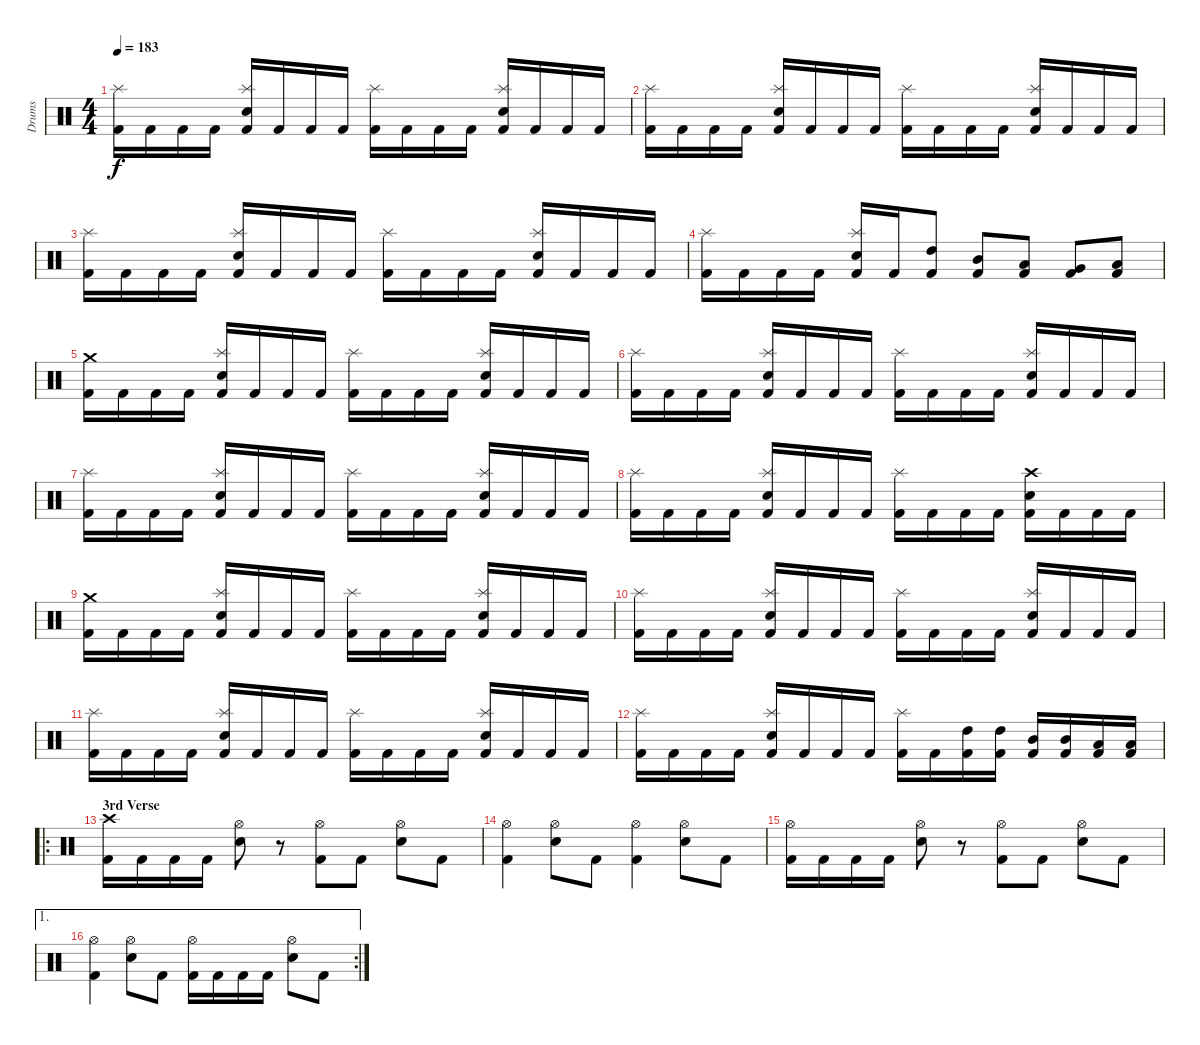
\track ("Drums" "Drums") {instrument percussion}
\staff {score}
\articulation defaults
\ts (4 4)
\tempo 183
\clef neutral
\ks c
("Kick (hit) 2" "Splash (hit)").16{dy f} "Kick (hit) 2".16 "Kick (hit) 2".16 "Kick (hit) 2".16 ("Kick (hit) 2" "Electric Snare (hit)" "Splash (hit)").16 "Kick (hit) 2".16 "Kick (hit) 2".16 "Kick (hit) 2".16 ("Kick (hit) 2" "Splash (hit)").16 "Kick (hit) 2".16 "Kick (hit) 2".16 "Kick (hit) 2".16 ("Kick (hit) 2" "Electric Snare (hit)" "Splash (hit)").16 "Kick (hit) 2".16 "Kick (hit) 2".16 "Kick (hit) 2".16 |
("Kick (hit) 2" "Splash (hit)").16 "Kick (hit) 2".16 "Kick (hit) 2".16 "Kick (hit) 2".16 ("Kick (hit) 2" "Electric Snare (hit)" "Splash (hit)").16 "Kick (hit) 2".16 "Kick (hit) 2".16 "Kick (hit) 2".16 ("Kick (hit) 2" "Splash (hit)").16 "Kick (hit) 2".16 "Kick (hit) 2".16 "Kick (hit) 2".16 ("Kick (hit) 2" "Electric Snare (hit)" "Splash (hit)").16 "Kick (hit) 2".16 "Kick (hit) 2".16 "Kick (hit) 2".16 |
("Kick (hit) 2" "Splash (hit)").16 "Kick (hit) 2".16 "Kick (hit) 2".16 "Kick (hit) 2".16 ("Kick (hit) 2" "Electric Snare (hit)" "Splash (hit)").16 "Kick (hit) 2".16 "Kick (hit) 2".16 "Kick (hit) 2".16 ("Kick (hit) 2" "Splash (hit)").16 "Kick (hit) 2".16 "Kick (hit) 2".16 "Kick (hit) 2".16 ("Kick (hit) 2" "Electric Snare (hit)" "Splash (hit)").16 "Kick (hit) 2".16 "Kick (hit) 2".16 "Kick (hit) 2".16 |
("Kick (hit) 2" "Splash (hit)").16 "Kick (hit) 2".16 "Kick (hit) 2".16 "Kick (hit) 2".16 ("Kick (hit) 2" "Electric Snare (hit)" "Splash (hit)").16 "Kick (hit) 2".16 ("Kick (hit) 2" "High Tom (hit)").8 ("Kick (hit) 2" "Mid Tom (hit)").8 ("Kick (hit) 2" "Low Tom (hit)").8 ("Kick (hit) 2" "Very Low Tom (hit)").8 ("Kick (hit) 2" "Low Floor Tom (hit)").8 |
("Kick (hit) 2" "Crash medium (hit)").16 "Kick (hit) 2".16 "Kick (hit) 2".16 "Kick (hit) 2".16 ("Kick (hit) 2" "Electric Snare (hit)" "Splash (hit)").16 "Kick (hit) 2".16 "Kick (hit) 2".16 "Kick (hit) 2".16 ("Kick (hit) 2" "Splash (hit)").16 "Kick (hit) 2".16 "Kick (hit) 2".16 "Kick (hit) 2".16 ("Kick (hit) 2" "Electric Snare (hit)" "Splash (hit)").16 "Kick (hit) 2".16 "Kick (hit) 2".16 "Kick (hit) 2".16 |
("Kick (hit) 2" "Splash (hit)").16 "Kick (hit) 2".16 "Kick (hit) 2".16 "Kick (hit) 2".16 ("Kick (hit) 2" "Electric Snare (hit)" "Splash (hit)").16 "Kick (hit) 2".16 "Kick (hit) 2".16 "Kick (hit) 2".16 ("Kick (hit) 2" "Splash (hit)").16 "Kick (hit) 2".16 "Kick (hit) 2".16 "Kick (hit) 2".16 ("Kick (hit) 2" "Electric Snare (hit)" "Splash (hit)").16 "Kick (hit) 2".16 "Kick (hit) 2".16 "Kick (hit) 2".16 |
("Kick (hit) 2" "Splash (hit)").16 "Kick (hit) 2".16 "Kick (hit) 2".16 "Kick (hit) 2".16 ("Kick (hit) 2" "Electric Snare (hit)" "Splash (hit)").16 "Kick (hit) 2".16 "Kick (hit) 2".16 "Kick (hit) 2".16 ("Kick (hit) 2" "Splash (hit)").16 "Kick (hit) 2".16 "Kick (hit) 2".16 "Kick (hit) 2".16 ("Kick (hit) 2" "Electric Snare (hit)" "Splash (hit)").16 "Kick (hit) 2".16 "Kick (hit) 2".16 "Kick (hit) 2".16 |
("Kick (hit) 2" "Splash (hit)").16 "Kick (hit) 2".16 "Kick (hit) 2".16 "Kick (hit) 2".16 ("Kick (hit) 2" "Electric Snare (hit)" "Splash (hit)").16 "Kick (hit) 2".16 "Kick (hit) 2".16 "Kick (hit) 2".16 ("Kick (hit) 2" "Splash (hit)").16 "Kick (hit) 2".16 "Kick (hit) 2".16 "Kick (hit) 2".16 ("Kick (hit) 2" "Electric Snare (hit)" "Crash high (hit)").16 "Kick (hit) 2".16 "Kick (hit) 2".16 "Kick (hit) 2".16 |
("Kick (hit) 2" "Crash medium (hit)").16 "Kick (hit) 2".16 "Kick (hit) 2".16 "Kick (hit) 2".16 ("Kick (hit) 2" "Electric Snare (hit)" "Splash (hit)").16 "Kick (hit) 2".16 "Kick (hit) 2".16 "Kick (hit) 2".16 ("Kick (hit) 2" "Splash (hit)").16 "Kick (hit) 2".16 "Kick (hit) 2".16 "Kick (hit) 2".16 ("Kick (hit) 2" "Electric Snare (hit)" "Splash (hit)").16 "Kick (hit) 2".16 "Kick (hit) 2".16 "Kick (hit) 2".16 |
("Kick (hit) 2" "Splash (hit)").16 "Kick (hit) 2".16 "Kick (hit) 2".16 "Kick (hit) 2".16 ("Kick (hit) 2" "Electric Snare (hit)" "Splash (hit)").16 "Kick (hit) 2".16 "Kick (hit) 2".16 "Kick (hit) 2".16 ("Kick (hit) 2" "Splash (hit)").16 "Kick (hit) 2".16 "Kick (hit) 2".16 "Kick (hit) 2".16 ("Kick (hit) 2" "Electric Snare (hit)" "Splash (hit)").16 "Kick (hit) 2".16 "Kick (hit) 2".16 "Kick (hit) 2".16 |
("Kick (hit) 2" "Splash (hit)").16 "Kick (hit) 2".16 "Kick (hit) 2".16 "Kick (hit) 2".16 ("Kick (hit) 2" "Electric Snare (hit)" "Splash (hit)").16 "Kick (hit) 2".16 "Kick (hit) 2".16 "Kick (hit) 2".16 ("Kick (hit) 2" "Splash (hit)").16 "Kick (hit) 2".16 "Kick (hit) 2".16 "Kick (hit) 2".16 ("Kick (hit) 2" "Electric Snare (hit)" "Splash (hit)").16 "Kick (hit) 2".16 "Kick (hit) 2".16 "Kick (hit) 2".16 |
("Kick (hit) 2" "Splash (hit)").16 "Kick (hit) 2".16 "Kick (hit) 2".16 "Kick (hit) 2".16 ("Kick (hit) 2" "Electric Snare (hit)" "Splash (hit)").16 "Kick (hit) 2".16 "Kick (hit) 2".16 "Kick (hit) 2".16 ("Kick (hit) 2" "Splash (hit)").16 "Kick (hit) 2".16 ("Kick (hit) 2" "High Tom (hit)").16 ("Kick (hit) 2" "High Tom (hit)").16 ("Kick (hit) 2" "Mid Tom (hit)").16 ("Kick (hit) 2" "Mid Tom (hit)").16 ("Kick (hit) 2" "Low Tom (hit)").16 ("Kick (hit) 2" "Low Tom (hit)").16 |
\ro
\section ("" "3rd Verse")
("Kick (hit) 2" "Crash high (hit)").16 "Kick (hit) 2".16 "Kick (hit) 2".16 "Kick (hit) 2".16 ("Electric Snare (hit)" "Hi-Hat (open)").8 r.8 ("Kick (hit) 2" "Hi-Hat (open)").8 "Kick (hit) 2".8 ("Electric Snare (hit)" "Hi-Hat (open)").8 "Kick (hit) 2".8 |
("Kick (hit) 2" "Hi-Hat (open)").4 ("Electric Snare (hit)" "Hi-Hat (open)").8 "Kick (hit) 2".8 ("Kick (hit) 2" "Hi-Hat (open)").4 ("Electric Snare (hit)" "Hi-Hat (open)").8 "Kick (hit) 2".8 |
("Kick (hit) 2" "Hi-Hat (open)").16 "Kick (hit) 2".16 "Kick (hit) 2".16 "Kick (hit) 2".16 ("Electric Snare (hit)" "Hi-Hat (open)").8 r.8 ("Kick (hit) 2" "Hi-Hat (open)").8 "Kick (hit) 2".8 ("Electric Snare (hit)" "Hi-Hat (open)").8 "Kick (hit) 2".8 |
\ae 1
\rc 2
("Kick (hit) 2" "Hi-Hat (open)").4 ("Electric Snare (hit)" "Hi-Hat (open)").8 "Kick (hit) 2".8 ("Kick (hit) 2" "Hi-Hat (open)").16 "Kick (hit) 2".16 "Kick (hit) 2".16 "Kick (hit) 2".16 ("Electric Snare (hit)" "Hi-Hat (open)").8 "Kick (hit) 2".8
